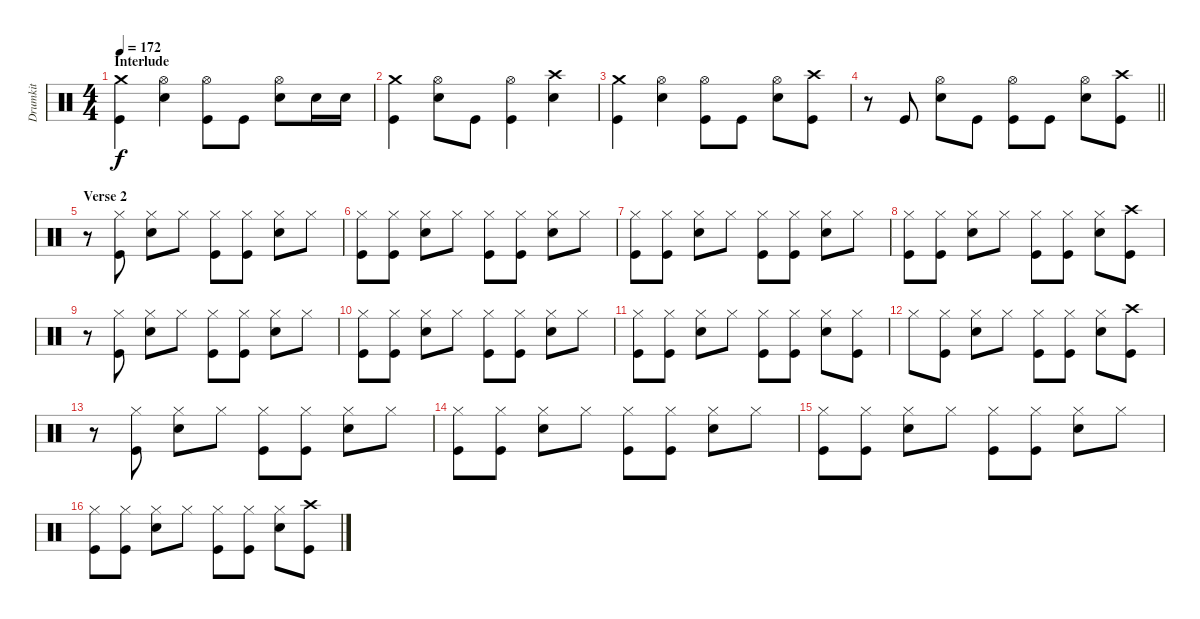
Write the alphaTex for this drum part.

\track ("Drumkit" "Drumkit") {instrument percussion}
\staff {score}
\articulation defaults
\ts (4 4)
\section ("" "Interlude")
\tempo 172
\clef neutral
\ks c
("Crash medium (hit)" "Kick (hit)").4{dy f} ("Hi-Hat (open)" "Snare (hit) 2").4 ("Hi-Hat (open)" "Kick (hit)").8 "Kick (hit)".8 ("Hi-Hat (open)" "Snare (hit) 2").8 "Snare (hit) 2".16 "Snare (hit) 2".16 |
("Crash medium (hit)" "Kick (hit)").4 ("Hi-Hat (open)" "Snare (hit) 2").8 "Kick (hit)".8 ("Hi-Hat (open)" "Kick (hit)").4 ("Crash high (hit)" "Snare (hit) 2").4 |
("Crash medium (hit)" "Kick (hit)").4 ("Hi-Hat (open)" "Snare (hit) 2").4 ("Hi-Hat (open)" "Kick (hit)").8 "Kick (hit)".8 ("Hi-Hat (open)" "Snare (hit) 2").8 ("Crash high (hit)" "Kick (hit)").8 |
\barLineRight lightlight
r.8 "Kick (hit)".8 ("Hi-Hat (open)" "Snare (hit) 2").8 "Kick (hit)".8 ("Hi-Hat (open)" "Kick (hit)").8 "Kick (hit)".8 ("Hi-Hat (open)" "Snare (hit) 2").8 ("Crash high (hit)" "Kick (hit)").8 |
\section ("" "Verse 2")
r.8 ("Hi-Hat (closed)" "Kick (hit)").8 ("Hi-Hat (closed)" "Snare (hit) 2").8 "Hi-Hat (closed)".8 ("Hi-Hat (closed)" "Kick (hit)").8 ("Hi-Hat (closed)" "Kick (hit)").8 ("Hi-Hat (closed)" "Snare (hit) 2").8 "Hi-Hat (closed)".8 |
("Hi-Hat (closed)" "Kick (hit)").8 ("Hi-Hat (closed)" "Kick (hit)").8 ("Hi-Hat (closed)" "Snare (hit) 2").8 "Hi-Hat (closed)".8 ("Hi-Hat (closed)" "Kick (hit)").8 ("Hi-Hat (closed)" "Kick (hit)").8 ("Hi-Hat (closed)" "Snare (hit) 2").8 "Hi-Hat (closed)".8 |
("Hi-Hat (closed)" "Kick (hit)").8 ("Hi-Hat (closed)" "Kick (hit)").8 ("Hi-Hat (closed)" "Snare (hit) 2").8 "Hi-Hat (closed)".8 ("Hi-Hat (closed)" "Kick (hit)").8 ("Hi-Hat (closed)" "Kick (hit)").8 ("Hi-Hat (closed)" "Snare (hit) 2").8 "Hi-Hat (closed)".8 |
("Hi-Hat (closed)" "Kick (hit)").8 ("Hi-Hat (closed)" "Kick (hit)").8 ("Hi-Hat (closed)" "Snare (hit) 2").8 "Hi-Hat (closed)".8 ("Hi-Hat (closed)" "Kick (hit)").8 ("Hi-Hat (closed)" "Kick (hit)").8 ("Hi-Hat (closed)" "Snare (hit) 2").8 ("Crash high (hit)" "Kick (hit)").8 |
r.8 ("Hi-Hat (closed)" "Kick (hit)").8 ("Hi-Hat (closed)" "Snare (hit) 2").8 "Hi-Hat (closed)".8 ("Hi-Hat (closed)" "Kick (hit)").8 ("Hi-Hat (closed)" "Kick (hit)").8 ("Hi-Hat (closed)" "Snare (hit) 2").8 "Hi-Hat (closed)".8 |
("Hi-Hat (closed)" "Kick (hit)").8 ("Hi-Hat (closed)" "Kick (hit)").8 ("Hi-Hat (closed)" "Snare (hit) 2").8 "Hi-Hat (closed)".8 ("Hi-Hat (closed)" "Kick (hit)").8 ("Hi-Hat (closed)" "Kick (hit)").8 ("Hi-Hat (closed)" "Snare (hit) 2").8 "Hi-Hat (closed)".8 |
("Hi-Hat (closed)" "Kick (hit)").8 ("Hi-Hat (closed)" "Kick (hit)").8 ("Hi-Hat (closed)" "Snare (hit) 2").8 "Hi-Hat (closed)".8 ("Hi-Hat (closed)" "Kick (hit)").8 ("Hi-Hat (closed)" "Kick (hit)").8 ("Hi-Hat (closed)" "Snare (hit) 2").8 ("Hi-Hat (closed)" "Kick (hit)").8 |
"Hi-Hat (closed)".8 ("Hi-Hat (closed)" "Kick (hit)").8 ("Hi-Hat (closed)" "Snare (hit) 2").8 "Hi-Hat (closed)".8 ("Hi-Hat (closed)" "Kick (hit)").8 ("Hi-Hat (closed)" "Kick (hit)").8 ("Hi-Hat (closed)" "Snare (hit) 2").8 ("Crash high (hit)" "Kick (hit)").8 |
r.8 ("Hi-Hat (closed)" "Kick (hit)").8 ("Hi-Hat (closed)" "Snare (hit) 2").8 "Hi-Hat (closed)".8 ("Hi-Hat (closed)" "Kick (hit)").8 ("Hi-Hat (closed)" "Kick (hit)").8 ("Hi-Hat (closed)" "Snare (hit) 2").8 "Hi-Hat (closed)".8 |
("Hi-Hat (closed)" "Kick (hit)").8 ("Hi-Hat (closed)" "Kick (hit)").8 ("Hi-Hat (closed)" "Snare (hit) 2").8 "Hi-Hat (closed)".8 ("Hi-Hat (closed)" "Kick (hit)").8 ("Hi-Hat (closed)" "Kick (hit)").8 ("Hi-Hat (closed)" "Snare (hit) 2").8 "Hi-Hat (closed)".8 |
("Hi-Hat (closed)" "Kick (hit)").8 ("Hi-Hat (closed)" "Kick (hit)").8 ("Hi-Hat (closed)" "Snare (hit) 2").8 "Hi-Hat (closed)".8 ("Hi-Hat (closed)" "Kick (hit)").8 ("Hi-Hat (closed)" "Kick (hit)").8 ("Hi-Hat (closed)" "Snare (hit) 2").8 "Hi-Hat (closed)".8 |
("Hi-Hat (closed)" "Kick (hit)").8 ("Hi-Hat (closed)" "Kick (hit)").8 ("Hi-Hat (closed)" "Snare (hit) 2").8 "Hi-Hat (closed)".8 ("Hi-Hat (closed)" "Kick (hit)").8 ("Hi-Hat (closed)" "Kick (hit)").8 ("Hi-Hat (closed)" "Snare (hit) 2").8 ("Crash high (hit)" "Kick (hit)").8
